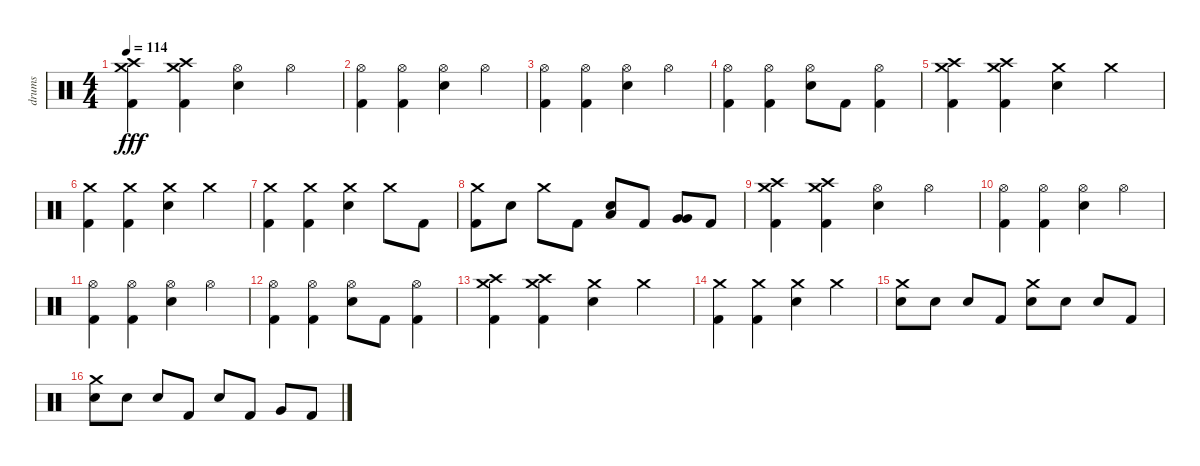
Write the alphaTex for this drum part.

\track ("drums" "drums") {instrument percussion}
\staff {score}
\articulation defaults
\ts (4 4)
\tempo 114
\clef neutral
\ks c
("Kick (hit) 2" "Crash high (hit)" "Crash medium (hit)").4{dy fff} ("Kick (hit) 2" "Crash high (hit)" "Crash medium (hit)").4 ("Hi-Hat (open)" "Snare (hit) 2").4 "Hi-Hat (open)".4 |
("Kick (hit) 2" "Hi-Hat (open)").4 ("Kick (hit) 2" "Hi-Hat (open)").4 ("Hi-Hat (open)" "Snare (hit) 2").4 "Hi-Hat (open)".4 |
("Kick (hit) 2" "Hi-Hat (open)").4 ("Kick (hit) 2" "Hi-Hat (open)").4 ("Hi-Hat (open)" "Snare (hit) 2").4 "Hi-Hat (open)".4 |
("Kick (hit) 2" "Hi-Hat (open)").4 ("Kick (hit) 2" "Hi-Hat (open)").4 ("Hi-Hat (open)" "Snare (hit) 2").8 "Kick (hit) 2".8 ("Kick (hit) 2" "Hi-Hat (open)").4 |
("Kick (hit) 2" "Crash high (hit)" "Crash medium (hit)").4 ("Kick (hit) 2" "Crash high (hit)" "Crash medium (hit)").4 ("Crash medium (hit)" "Snare (hit) 2").4 "Crash medium (hit)".4 |
("Kick (hit) 2" "Crash medium (hit)").4 ("Kick (hit) 2" "Crash medium (hit)").4 ("Crash medium (hit)" "Snare (hit) 2").4 "Crash medium (hit)".4 |
("Kick (hit) 2" "Crash medium (hit)").4 ("Kick (hit) 2" "Crash medium (hit)").4 ("Crash medium (hit)" "Snare (hit) 2").4 "Crash medium (hit)".8 "Kick (hit) 2".8 |
("Kick (hit) 2" "Crash medium (hit)").8 "Snare (hit) 2".8 "Crash medium (hit)".8 "Kick (hit) 2".8 ("Low Tom (hit)" "Snare (hit) 2").8 "Kick (hit) 2".8 ("Very Low Tom (hit)" "Very Low Tom (hit)").8 "Kick (hit) 2".8 |
("Kick (hit) 2" "Crash high (hit)" "Crash medium (hit)").4 ("Kick (hit) 2" "Crash high (hit)" "Crash medium (hit)").4 ("Hi-Hat (open)" "Snare (hit) 2").4 "Hi-Hat (open)".4 |
("Kick (hit) 2" "Hi-Hat (open)").4 ("Kick (hit) 2" "Hi-Hat (open)").4 ("Hi-Hat (open)" "Snare (hit) 2").4 "Hi-Hat (open)".4 |
("Kick (hit) 2" "Hi-Hat (open)").4 ("Kick (hit) 2" "Hi-Hat (open)").4 ("Hi-Hat (open)" "Snare (hit) 2").4 "Hi-Hat (open)".4 |
("Kick (hit) 2" "Hi-Hat (open)").4 ("Kick (hit) 2" "Hi-Hat (open)").4 ("Hi-Hat (open)" "Snare (hit) 2").8 "Kick (hit) 2".8 ("Kick (hit) 2" "Hi-Hat (open)").4 |
("Kick (hit) 2" "Crash high (hit)" "Crash medium (hit)").4 ("Kick (hit) 2" "Crash high (hit)" "Crash medium (hit)").4 ("Crash medium (hit)" "Snare (hit) 2").4 "Crash medium (hit)".4 |
("Kick (hit) 2" "Crash medium (hit)").4 ("Kick (hit) 2" "Crash medium (hit)").4 ("Crash medium (hit)" "Snare (hit) 2").4 "Crash medium (hit)".4 |
("Crash medium (hit)" "Snare (hit) 2").8 "Snare (hit) 2".8 "Snare (hit) 2".8 "Kick (hit) 2".8 ("Crash medium (hit)" "Snare (hit) 2").8 "Snare (hit) 2".8 "Snare (hit) 2".8 "Kick (hit) 2".8 |
("Crash medium (hit)" "Snare (hit) 2").8 "Snare (hit) 2".8 "Snare (hit) 2".8 "Kick (hit) 2".8 "Snare (hit) 2".8 "Kick (hit) 2".8 "Very Low Tom (hit)".8 "Kick (hit) 2".8
